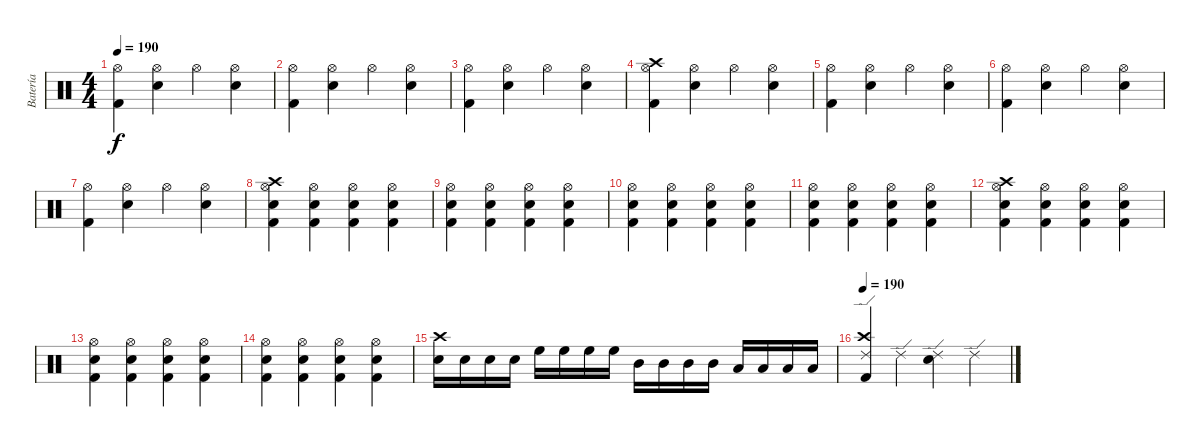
\track ("Batería" "Batería") {instrument percussion}
\staff {score}
\articulation defaults
\ts (4 4)
\tempo 190
\clef neutral
\ks c
("Hi-Hat (open)" "Kick (hit) 2").4{dy f} ("Hi-Hat (open)" "Electric Snare (hit)").4 "Hi-Hat (open)".4 ("Hi-Hat (open)" "Electric Snare (hit)").4 |
("Hi-Hat (open)" "Kick (hit) 2").4 ("Hi-Hat (open)" "Electric Snare (hit)").4 "Hi-Hat (open)".4 ("Hi-Hat (open)" "Electric Snare (hit)").4 |
("Hi-Hat (open)" "Kick (hit) 2").4 ("Hi-Hat (open)" "Electric Snare (hit)").4 "Hi-Hat (open)".4 ("Hi-Hat (open)" "Electric Snare (hit)").4 |
("Hi-Hat (open)" "Kick (hit) 2" "Crash high (hit)").4 ("Hi-Hat (open)" "Electric Snare (hit)").4 "Hi-Hat (open)".4 ("Hi-Hat (open)" "Electric Snare (hit)").4 |
("Hi-Hat (open)" "Kick (hit) 2").4 ("Hi-Hat (open)" "Electric Snare (hit)").4 "Hi-Hat (open)".4 ("Hi-Hat (open)" "Electric Snare (hit)").4 |
("Hi-Hat (open)" "Kick (hit) 2").4 ("Hi-Hat (open)" "Electric Snare (hit)").4 "Hi-Hat (open)".4 ("Hi-Hat (open)" "Electric Snare (hit)").4 |
("Hi-Hat (open)" "Kick (hit) 2").4 ("Hi-Hat (open)" "Electric Snare (hit)").4 "Hi-Hat (open)".4 ("Hi-Hat (open)" "Electric Snare (hit)").4 |
("Electric Snare (hit)" "Kick (hit) 2" "Hi-Hat (open)" "Crash high (hit)").4 ("Electric Snare (hit)" "Kick (hit) 2" "Hi-Hat (open)").4 ("Electric Snare (hit)" "Kick (hit) 2" "Hi-Hat (open)").4 ("Electric Snare (hit)" "Kick (hit) 2" "Hi-Hat (open)").4 |
("Electric Snare (hit)" "Kick (hit) 2" "Hi-Hat (open)").4 ("Electric Snare (hit)" "Kick (hit) 2" "Hi-Hat (open)").4 ("Electric Snare (hit)" "Kick (hit) 2" "Hi-Hat (open)").4 ("Electric Snare (hit)" "Kick (hit) 2" "Hi-Hat (open)").4 |
("Electric Snare (hit)" "Kick (hit) 2" "Hi-Hat (open)").4 ("Electric Snare (hit)" "Kick (hit) 2" "Hi-Hat (open)").4 ("Electric Snare (hit)" "Kick (hit) 2" "Hi-Hat (open)").4 ("Electric Snare (hit)" "Kick (hit) 2" "Hi-Hat (open)").4 |
("Electric Snare (hit)" "Kick (hit) 2" "Hi-Hat (open)").4 ("Electric Snare (hit)" "Kick (hit) 2" "Hi-Hat (open)").4 ("Electric Snare (hit)" "Kick (hit) 2" "Hi-Hat (open)").4 ("Electric Snare (hit)" "Kick (hit) 2" "Hi-Hat (open)").4 |
("Electric Snare (hit)" "Kick (hit) 2" "Hi-Hat (open)" "Crash high (hit)").4 ("Electric Snare (hit)" "Kick (hit) 2" "Hi-Hat (open)").4 ("Electric Snare (hit)" "Kick (hit) 2" "Hi-Hat (open)").4 ("Electric Snare (hit)" "Kick (hit) 2" "Hi-Hat (open)").4 |
("Electric Snare (hit)" "Kick (hit) 2" "Hi-Hat (open)").4 ("Electric Snare (hit)" "Kick (hit) 2" "Hi-Hat (open)").4 ("Electric Snare (hit)" "Kick (hit) 2" "Hi-Hat (open)").4 ("Electric Snare (hit)" "Kick (hit) 2" "Hi-Hat (open)").4 |
("Electric Snare (hit)" "Kick (hit) 2" "Hi-Hat (open)").4 ("Electric Snare (hit)" "Kick (hit) 2" "Hi-Hat (open)").4 ("Electric Snare (hit)" "Kick (hit) 2" "Hi-Hat (open)").4 ("Electric Snare (hit)" "Kick (hit) 2" "Hi-Hat (open)").4 |
("Electric Snare (hit)" "Crash high (hit)").16 "Electric Snare (hit)".16 "Electric Snare (hit)".16 "Electric Snare (hit)".16 "High Floor Tom (hit)".16 "High Floor Tom (hit)".16 "High Floor Tom (hit)".16 "High Floor Tom (hit)".16 "Mid Tom (hit)".16 "Mid Tom (hit)".16 "Mid Tom (hit)".16 "Mid Tom (hit)".16 "Low Tom (hit)".16 "Low Tom (hit)".16 "Low Tom (hit)".16 "Low Tom (hit)".16 |
\tempo 190
("Ride (edge) 2" "Kick (hit) 2" "Crash high (hit)").4 "Ride (edge) 2".4 ("Ride (edge) 2" "Electric Snare (hit)").4 "Ride (edge) 2".4
